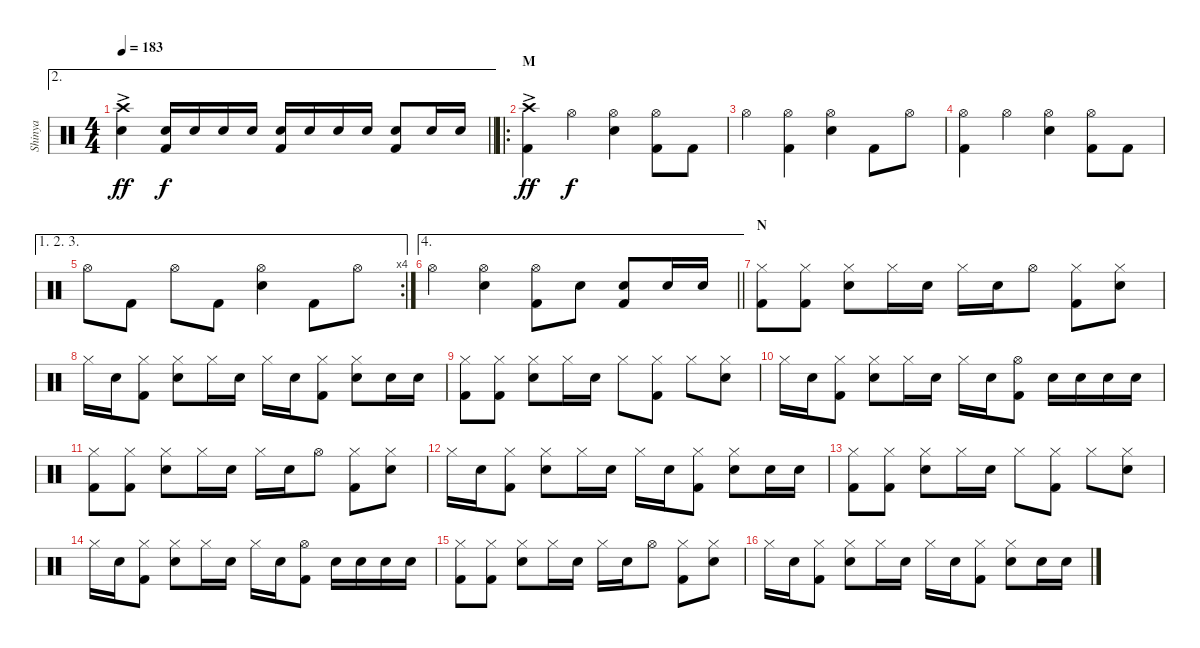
\track ("Shinya" "Shinya") {instrument percussion}
\staff {score}
\articulation defaults
\ae 2
\ts (4 4)
\tempo 183
\clef neutral
\barLineRight lightlight
\ks c
("Crash high (hit)"{ac} "Snare (hit) 2").4{dy ff} ("Snare (hit) 2" "Kick (hit) 2").16{dy f} "Snare (hit) 2".16 "Snare (hit) 2".16 "Snare (hit) 2".16 ("Snare (hit) 2" "Kick (hit) 2").16 "Snare (hit) 2".16 "Snare (hit) 2".16 "Snare (hit) 2".16 ("Snare (hit) 2" "Kick (hit) 2").8 "Snare (hit) 2".16 "Snare (hit) 2".16 |
\ro
\section ("" "M")
("Crash high (hit)"{ac} "Kick (hit) 2").4{dy ff} "Hi-Hat (open)".4{dy f} ("Hi-Hat (open)" "Snare (hit) 2").4 ("Hi-Hat (open)" "Kick (hit) 2").8 "Kick (hit) 2".8 |
"Hi-Hat (open)".4 ("Hi-Hat (open)" "Kick (hit) 2").4 ("Hi-Hat (open)" "Snare (hit) 2").4 "Kick (hit) 2".8 "Hi-Hat (open)".8 |
("Hi-Hat (open)" "Kick (hit) 2").4 "Hi-Hat (open)".4 ("Hi-Hat (open)" "Snare (hit) 2").4 ("Hi-Hat (open)" "Kick (hit) 2").8 "Kick (hit) 2".8 |
\ae (1 2 3)
\rc 4 "Hi-Hat (open)".8 "Kick (hit) 2".8 "Hi-Hat (open)".8 "Kick (hit) 2".8
("Hi-Hat (open)" "Snare (hit) 2").4 "Kick (hit) 2".8 "Hi-Hat (open)".8 |
\ae 4
\barLineRight lightlight "Hi-Hat (open)".4
("Hi-Hat (open)" "Snare (hit) 2").4 ("Hi-Hat (open)" "Kick (hit) 2").8 "Snare (hit) 2".8 ("Snare (hit) 2" "Kick (hit) 2").8 "Snare (hit) 2".16 "Snare (hit) 2".16 |
\section ("" "N")
("Hi-Hat (closed)" "Kick (hit) 2").8 ("Hi-Hat (closed)" "Kick (hit) 2").8 ("Hi-Hat (closed)" "Snare (hit) 2").8 "Hi-Hat (closed)".16 "Snare (hit) 2".16 "Hi-Hat (closed)".16 "Snare (hit) 2".16 "Hi-Hat (open)".8 ("Hi-Hat (closed)" "Kick (hit) 2").8 ("Hi-Hat (closed)" "Snare (hit) 2").8 |
"Hi-Hat (closed)".16 "Snare (hit) 2".16 ("Hi-Hat (closed)" "Kick (hit) 2").8 ("Hi-Hat (closed)" "Snare (hit) 2").8 "Hi-Hat (closed)".16 "Snare (hit) 2".16 "Hi-Hat (closed)".16 "Snare (hit) 2".16 ("Hi-Hat (closed)" "Kick (hit) 2").8 ("Hi-Hat (closed)" "Snare (hit) 2").8 "Snare (hit) 2".16 "Snare (hit) 2".16 |
("Hi-Hat (closed)" "Kick (hit) 2").8 ("Hi-Hat (closed)" "Kick (hit) 2").8 ("Hi-Hat (closed)" "Snare (hit) 2").8 "Hi-Hat (closed)".16 "Snare (hit) 2".16 "Hi-Hat (closed)".8 ("Hi-Hat (closed)" "Kick (hit) 2").8 "Hi-Hat (closed)".8 ("Hi-Hat (closed)" "Snare (hit) 2").8 |
"Hi-Hat (closed)".16 "Snare (hit) 2".16 ("Hi-Hat (closed)" "Kick (hit) 2").8 ("Hi-Hat (closed)" "Snare (hit) 2").8 "Hi-Hat (closed)".16 "Snare (hit) 2".16 "Hi-Hat (closed)".16 "Snare (hit) 2".16 ("Hi-Hat (open)" "Kick (hit) 2").8 "Snare (hit) 2".16 "Snare (hit) 2".16 "Snare (hit) 2".16 "Snare (hit) 2".16 |
("Hi-Hat (closed)" "Kick (hit) 2").8 ("Hi-Hat (closed)" "Kick (hit) 2").8 ("Hi-Hat (closed)" "Snare (hit) 2").8 "Hi-Hat (closed)".16 "Snare (hit) 2".16 "Hi-Hat (closed)".16 "Snare (hit) 2".16 "Hi-Hat (open)".8 ("Hi-Hat (closed)" "Kick (hit) 2").8 ("Hi-Hat (closed)" "Snare (hit) 2").8 |
"Hi-Hat (closed)".16 "Snare (hit) 2".16 ("Hi-Hat (closed)" "Kick (hit) 2").8 ("Hi-Hat (closed)" "Snare (hit) 2").8 "Hi-Hat (closed)".16 "Snare (hit) 2".16 "Hi-Hat (closed)".16 "Snare (hit) 2".16 ("Hi-Hat (closed)" "Kick (hit) 2").8 ("Hi-Hat (closed)" "Snare (hit) 2").8 "Snare (hit) 2".16 "Snare (hit) 2".16 |
("Hi-Hat (closed)" "Kick (hit) 2").8 ("Hi-Hat (closed)" "Kick (hit) 2").8 ("Hi-Hat (closed)" "Snare (hit) 2").8 "Hi-Hat (closed)".16 "Snare (hit) 2".16 "Hi-Hat (closed)".8 ("Hi-Hat (closed)" "Kick (hit) 2").8 "Hi-Hat (closed)".8 ("Hi-Hat (closed)" "Snare (hit) 2").8 |
"Hi-Hat (closed)".16 "Snare (hit) 2".16 ("Hi-Hat (closed)" "Kick (hit) 2").8 ("Hi-Hat (closed)" "Snare (hit) 2").8 "Hi-Hat (closed)".16 "Snare (hit) 2".16 "Hi-Hat (closed)".16 "Snare (hit) 2".16 ("Hi-Hat (open)" "Kick (hit) 2").8 "Snare (hit) 2".16 "Snare (hit) 2".16 "Snare (hit) 2".16 "Snare (hit) 2".16 |
("Hi-Hat (closed)" "Kick (hit) 2").8{volume 10} ("Hi-Hat (closed)" "Kick (hit) 2").8 ("Hi-Hat (closed)" "Snare (hit) 2").8 "Hi-Hat (closed)".16 "Snare (hit) 2".16 "Hi-Hat (closed)".16 "Snare (hit) 2".16 "Hi-Hat (open)".8 ("Hi-Hat (closed)" "Kick (hit) 2").8 ("Hi-Hat (closed)" "Snare (hit) 2").8 |
"Hi-Hat (closed)".16 "Snare (hit) 2".16 ("Hi-Hat (closed)" "Kick (hit) 2").8 ("Hi-Hat (closed)" "Snare (hit) 2").8 "Hi-Hat (closed)".16 "Snare (hit) 2".16 "Hi-Hat (closed)".16 "Snare (hit) 2".16 ("Hi-Hat (closed)" "Kick (hit) 2").8 ("Hi-Hat (closed)" "Snare (hit) 2").8 "Snare (hit) 2".16 "Snare (hit) 2".16
